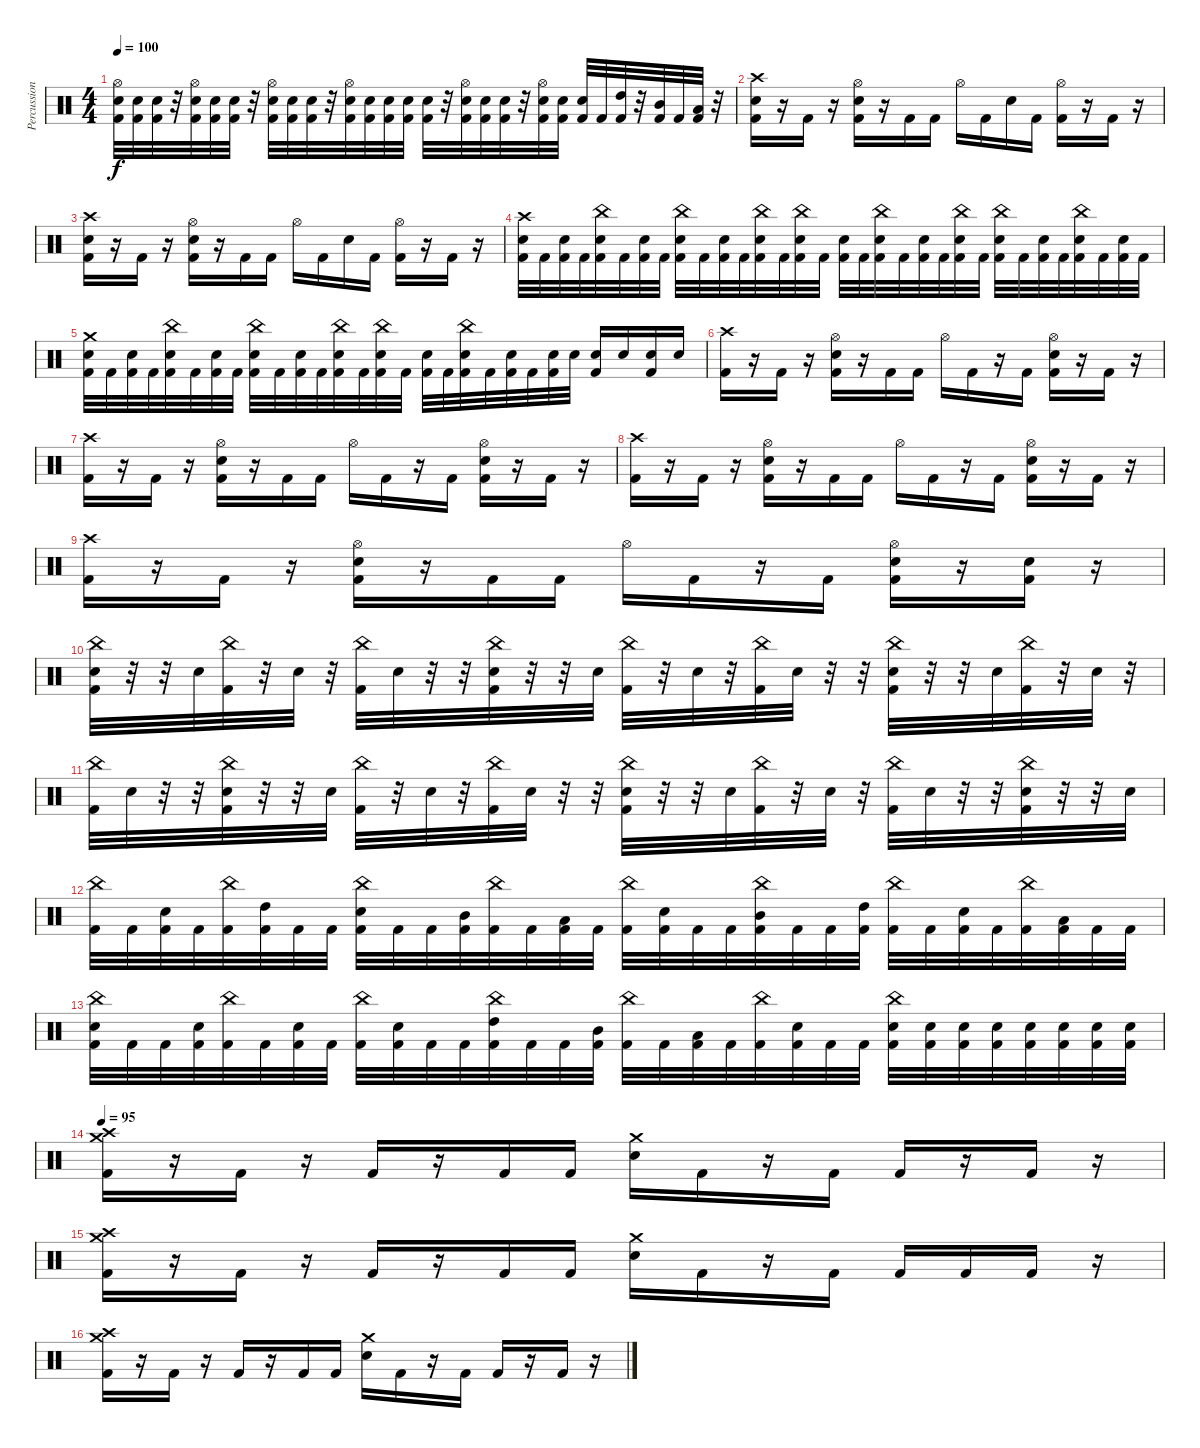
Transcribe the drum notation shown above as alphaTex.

\track ("Percussion" "Percussion") {instrument percussion}
\staff {score}
\articulation defaults
\ts (4 4)
\tempo 100
\clef neutral
\ks c
("Hi-Hat (open)" "Electric Snare (hit)" "Kick (hit) 2").32{dy f} ("Electric Snare (hit)" "Kick (hit) 2").32 ("Electric Snare (hit)" "Kick (hit) 2").32 r.32 ("Hi-Hat (open)" "Electric Snare (hit)" "Kick (hit) 2").32 ("Electric Snare (hit)" "Kick (hit) 2").32 ("Electric Snare (hit)" "Kick (hit) 2").32 r.32 ("Hi-Hat (open)" "Electric Snare (hit)" "Kick (hit) 2").32 ("Electric Snare (hit)" "Kick (hit) 2").32 ("Electric Snare (hit)" "Kick (hit) 2").32 r.32 ("Hi-Hat (open)" "Electric Snare (hit)" "Kick (hit) 2").32 ("Electric Snare (hit)" "Kick (hit) 2").32 ("Electric Snare (hit)" "Kick (hit) 2").32 ("Electric Snare (hit)" "Kick (hit) 2").32 ("Electric Snare (hit)" "Kick (hit) 2").32 r.32 ("Hi-Hat (open)" "Electric Snare (hit)" "Kick (hit) 2").32 ("Electric Snare (hit)" "Kick (hit) 2").32 ("Electric Snare (hit)" "Kick (hit) 2").32 r.32 ("Hi-Hat (open)" "Electric Snare (hit)" "Kick (hit) 2").32 ("Electric Snare (hit)" "Kick (hit) 2").32 ("Electric Snare (hit)" "Kick (hit) 2").32 "Kick (hit) 2".32 ("High Tom (hit)" "Kick (hit) 2").32 r.32 ("Mid Tom (hit)" "Kick (hit) 2").32 "Kick (hit) 2".32 ("Low Tom (hit)" "Kick (hit) 2").32 r.32 |
("Crash high (hit)" "Electric Snare (hit)" "Kick (hit) 2").16 r.16 "Kick (hit) 2".16 r.16 ("Hi-Hat (open)" "Electric Snare (hit)" "Kick (hit) 2").16 r.16 "Kick (hit) 2".16 "Kick (hit) 2".16 "Hi-Hat (open)".16 "Kick (hit) 2".16 "Electric Snare (hit)".16 "Kick (hit) 2".16 ("Hi-Hat (open)" "Kick (hit) 2").16 r.16 "Kick (hit) 2".16 r.16 |
("Crash high (hit)" "Electric Snare (hit)" "Kick (hit) 2").16 r.16 "Kick (hit) 2".16 r.16 ("Hi-Hat (open)" "Electric Snare (hit)" "Kick (hit) 2").16 r.16 "Kick (hit) 2".16 "Kick (hit) 2".16 "Hi-Hat (open)".16 "Kick (hit) 2".16 "Electric Snare (hit)".16 "Kick (hit) 2".16 ("Hi-Hat (open)" "Kick (hit) 2").16 r.16 "Kick (hit) 2".16 r.16 |
("Crash high (hit)" "Electric Snare (hit)" "Kick (hit) 2").32 "Kick (hit) 2".32 ("Electric Snare (hit)" "Kick (hit) 2").32 "Kick (hit) 2".32 ("China (hit)" "Electric Snare (hit)" "Kick (hit) 2").32 "Kick (hit) 2".32 ("Electric Snare (hit)" "Kick (hit) 2").32 "Kick (hit) 2".32 ("China (hit)" "Electric Snare (hit)" "Kick (hit) 2").32 "Kick (hit) 2".32 ("Electric Snare (hit)" "Kick (hit) 2").32 "Kick (hit) 2".32 ("China (hit)" "Electric Snare (hit)" "Kick (hit) 2").32 "Kick (hit) 2".32 ("China (hit)" "Electric Snare (hit)" "Kick (hit) 2").32 "Kick (hit) 2".32 ("Electric Snare (hit)" "Kick (hit) 2").32 "Kick (hit) 2".32 ("China (hit)" "Electric Snare (hit)" "Kick (hit) 2").32 "Kick (hit) 2".32 ("Electric Snare (hit)" "Kick (hit) 2").32 "Kick (hit) 2".32 ("China (hit)" "Electric Snare (hit)" "Kick (hit) 2").32 "Kick (hit) 2".32 ("China (hit)" "Electric Snare (hit)" "Kick (hit) 2").32 "Kick (hit) 2".32 ("Electric Snare (hit)" "Kick (hit) 2").32 "Kick (hit) 2".32 ("China (hit)" "Electric Snare (hit)" "Kick (hit) 2").32 "Kick (hit) 2".32 ("Electric Snare (hit)" "Kick (hit) 2").32 "Kick (hit) 2".32 |
("Crash medium (hit)" "Electric Snare (hit)" "Kick (hit) 2").32 "Kick (hit) 2".32 ("Electric Snare (hit)" "Kick (hit) 2").32 "Kick (hit) 2".32 ("China (hit)" "Electric Snare (hit)" "Kick (hit) 2").32 "Kick (hit) 2".32 ("Electric Snare (hit)" "Kick (hit) 2").32 "Kick (hit) 2".32 ("China (hit)" "Electric Snare (hit)" "Kick (hit) 2").32 "Kick (hit) 2".32 ("Electric Snare (hit)" "Kick (hit) 2").32 "Kick (hit) 2".32 ("China (hit)" "Electric Snare (hit)" "Kick (hit) 2").32 "Kick (hit) 2".32 ("China (hit)" "Electric Snare (hit)" "Kick (hit) 2").32 "Kick (hit) 2".32 ("Electric Snare (hit)" "Kick (hit) 2").32 "Kick (hit) 2".32 ("China (hit)" "Electric Snare (hit)" "Kick (hit) 2").32 "Kick (hit) 2".32 ("Electric Snare (hit)" "Kick (hit) 2").32 "Kick (hit) 2".32 ("Electric Snare (hit)" "Kick (hit) 2").32 "Electric Snare (hit)".32 ("Electric Snare (hit)" "Kick (hit) 2").16 "Electric Snare (hit)".16 ("Electric Snare (hit)" "Kick (hit) 2").16 "Electric Snare (hit)".16 |
("Crash high (hit)" "Kick (hit) 2").16 r.16 "Kick (hit) 2".16 r.16 ("Hi-Hat (open)" "Electric Snare (hit)" "Kick (hit) 2").16 r.16 "Kick (hit) 2".16 "Kick (hit) 2".16 "Hi-Hat (open)".16 "Kick (hit) 2".16 r.16 "Kick (hit) 2".16 ("Hi-Hat (open)" "Electric Snare (hit)" "Kick (hit) 2").16 r.16 "Kick (hit) 2".16 r.16 |
("Crash high (hit)" "Kick (hit) 2").16 r.16 "Kick (hit) 2".16 r.16 ("Hi-Hat (open)" "Electric Snare (hit)" "Kick (hit) 2").16 r.16 "Kick (hit) 2".16 "Kick (hit) 2".16 "Hi-Hat (open)".16 "Kick (hit) 2".16 r.16 "Kick (hit) 2".16 ("Hi-Hat (open)" "Electric Snare (hit)" "Kick (hit) 2").16 r.16 "Kick (hit) 2".16 r.16 |
("Crash high (hit)" "Kick (hit) 2").16 r.16 "Kick (hit) 2".16 r.16 ("Hi-Hat (open)" "Electric Snare (hit)" "Kick (hit) 2").16 r.16 "Kick (hit) 2".16 "Kick (hit) 2".16 "Hi-Hat (open)".16 "Kick (hit) 2".16 r.16 "Kick (hit) 2".16 ("Hi-Hat (open)" "Electric Snare (hit)" "Kick (hit) 2").16 r.16 "Kick (hit) 2".16 r.16 |
("Crash high (hit)" "Kick (hit) 2").16 r.16 "Kick (hit) 2".16 r.16 ("Hi-Hat (open)" "Electric Snare (hit)" "Kick (hit) 2").16 r.16 "Kick (hit) 2".16 "Kick (hit) 2".16 "Hi-Hat (open)".16 "Kick (hit) 2".16 r.16 "Kick (hit) 2".16 ("Hi-Hat (open)" "Electric Snare (hit)" "Kick (hit) 2").16 r.16 ("Electric Snare (hit)" "Kick (hit) 2").16 r.16 |
("China (hit)" "Kick (hit) 2" "Electric Snare (hit)").32 r.32 r.32 "Electric Snare (hit)".32 ("China (hit)" "Kick (hit) 2").32 r.32 "Electric Snare (hit)".32 r.32 ("China (hit)" "Kick (hit) 2").32 "Electric Snare (hit)".32 r.32 r.32 ("China (hit)" "Kick (hit) 2" "Electric Snare (hit)").32 r.32 r.32 "Electric Snare (hit)".32 ("China (hit)" "Kick (hit) 2").32 r.32 "Electric Snare (hit)".32 r.32 ("China (hit)" "Kick (hit) 2").32 "Electric Snare (hit)".32 r.32 r.32 ("China (hit)" "Kick (hit) 2" "Electric Snare (hit)").32 r.32 r.32 "Electric Snare (hit)".32 ("China (hit)" "Kick (hit) 2").32 r.32 "Electric Snare (hit)".32 r.32 |
("China (hit)" "Kick (hit) 2").32 "Electric Snare (hit)".32 r.32 r.32 ("China (hit)" "Kick (hit) 2" "Electric Snare (hit)").32 r.32 r.32 "Electric Snare (hit)".32 ("China (hit)" "Kick (hit) 2").32 r.32 "Electric Snare (hit)".32 r.32 ("China (hit)" "Kick (hit) 2").32 "Electric Snare (hit)".32 r.32 r.32 ("China (hit)" "Kick (hit) 2" "Electric Snare (hit)").32 r.32 r.32 "Electric Snare (hit)".32 ("China (hit)" "Kick (hit) 2").32 r.32 "Electric Snare (hit)".32 r.32 ("China (hit)" "Kick (hit) 2").32 "Electric Snare (hit)".32 r.32 r.32 ("China (hit)" "Kick (hit) 2" "Electric Snare (hit)").32 r.32 r.32 "Electric Snare (hit)".32 |
("China (hit)" "Kick (hit) 2").32 "Kick (hit) 2".32 ("Kick (hit) 2" "Electric Snare (hit)").32 "Kick (hit) 2".32 ("China (hit)" "Kick (hit) 2").32 ("Kick (hit) 2" "High Tom (hit)").32 "Kick (hit) 2".32 "Kick (hit) 2".32 ("China (hit)" "Kick (hit) 2" "Electric Snare (hit)").32 "Kick (hit) 2".32 "Kick (hit) 2".32 ("Kick (hit) 2" "Mid Tom (hit)").32 ("China (hit)" "Kick (hit) 2").32 "Kick (hit) 2".32 ("Kick (hit) 2" "Low Tom (hit)").32 "Kick (hit) 2".32 ("China (hit)" "Kick (hit) 2").32 ("Kick (hit) 2" "Electric Snare (hit)").32 "Kick (hit) 2".32 "Kick (hit) 2".32 ("China (hit)" "Kick (hit) 2" "Mid Tom (hit)").32 "Kick (hit) 2".32 "Kick (hit) 2".32 ("Kick (hit) 2" "High Tom (hit)").32 ("China (hit)" "Kick (hit) 2").32 "Kick (hit) 2".32 ("Kick (hit) 2" "Electric Snare (hit)").32 "Kick (hit) 2".32 ("China (hit)" "Kick (hit) 2").32 ("Kick (hit) 2" "Low Tom (hit)").32 "Kick (hit) 2".32 "Kick (hit) 2".32 |
("China (hit)" "Kick (hit) 2" "Electric Snare (hit)").32 "Kick (hit) 2".32 "Kick (hit) 2".32 ("Kick (hit) 2" "Electric Snare (hit)").32 ("China (hit)" "Kick (hit) 2").32 "Kick (hit) 2".32 ("Kick (hit) 2" "Electric Snare (hit)").32 "Kick (hit) 2".32 ("China (hit)" "Kick (hit) 2").32 ("Kick (hit) 2" "Electric Snare (hit)").32 "Kick (hit) 2".32 "Kick (hit) 2".32 ("China (hit)" "Kick (hit) 2" "High Tom (hit)").32 "Kick (hit) 2".32 "Kick (hit) 2".32 ("Kick (hit) 2" "Mid Tom (hit)").32 ("China (hit)" "Kick (hit) 2").32 "Kick (hit) 2".32 ("Kick (hit) 2" "Low Tom (hit)").32 "Kick (hit) 2".32 ("China (hit)" "Kick (hit) 2").32 ("Kick (hit) 2" "Electric Snare (hit)").32 "Kick (hit) 2".32 "Kick (hit) 2".32 ("China (hit)" "Kick (hit) 2" "Electric Snare (hit)").32 ("Kick (hit) 2" "Electric Snare (hit)").32 ("Kick (hit) 2" "Electric Snare (hit)").32 ("Kick (hit) 2" "Electric Snare (hit)").32 ("Kick (hit) 2" "Electric Snare (hit)").32 ("Kick (hit) 2" "Electric Snare (hit)").32 ("Kick (hit) 2" "Electric Snare (hit)").32 ("Kick (hit) 2" "Electric Snare (hit)").32 |
\tempo 95
("Crash medium (hit)" "Crash high (hit)" "Kick (hit) 2").16 r.16 "Kick (hit) 2".16 r.16 "Kick (hit) 2".16 r.16 "Kick (hit) 2".16 "Kick (hit) 2".16 ("Crash medium (hit)" "Electric Snare (hit)").16 "Kick (hit) 2".16 r.16 "Kick (hit) 2".16 "Kick (hit) 2".16 r.16 "Kick (hit) 2".16 r.16 |
("Crash medium (hit)" "Crash high (hit)" "Kick (hit) 2").16 r.16 "Kick (hit) 2".16 r.16 "Kick (hit) 2".16 r.16 "Kick (hit) 2".16 "Kick (hit) 2".16 ("Crash medium (hit)" "Electric Snare (hit)").16 "Kick (hit) 2".16 r.16 "Kick (hit) 2".16 "Kick (hit) 2".16 "Kick (hit) 2".16 "Kick (hit) 2".16 r.16 |
("Crash medium (hit)" "Crash high (hit)" "Kick (hit) 2").16 r.16 "Kick (hit) 2".16 r.16 "Kick (hit) 2".16 r.16 "Kick (hit) 2".16 "Kick (hit) 2".16 ("Crash medium (hit)" "Electric Snare (hit)").16 "Kick (hit) 2".16 r.16 "Kick (hit) 2".16 "Kick (hit) 2".16 r.16 "Kick (hit) 2".16 r.16
